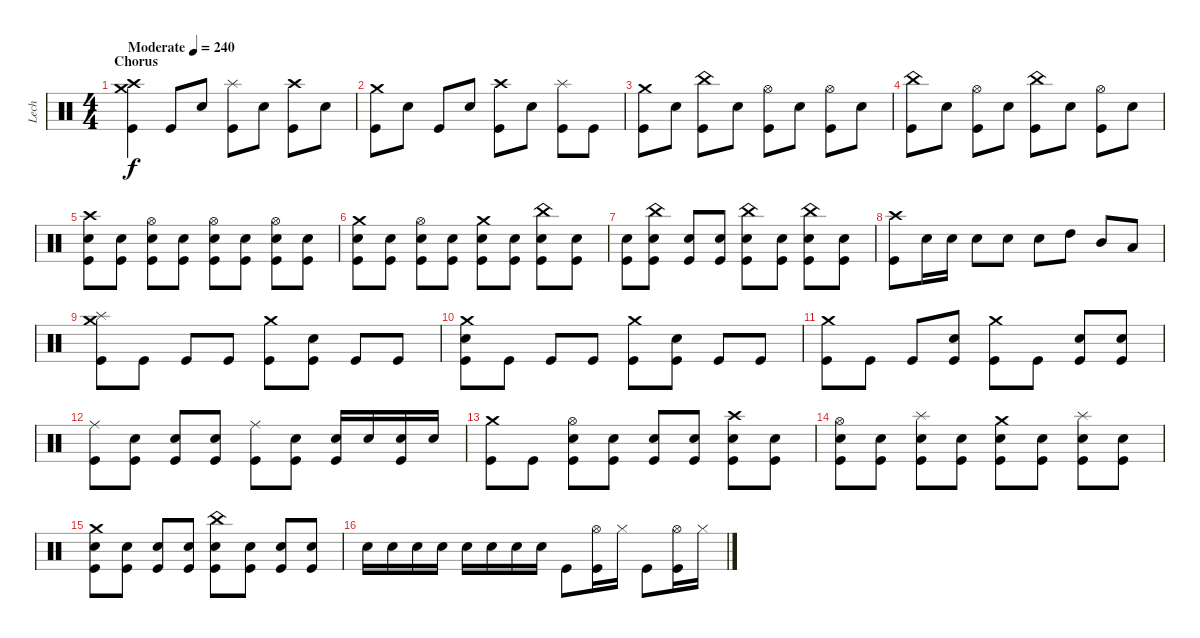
\track ("Lech" "Lech") {instrument percussion}
\staff {score}
\articulation defaults
\ts (4 4)
\section ("" "Chorus")
\tempo (240 "Moderate")
\clef neutral
\ks c
("Crash high (hit)" "Crash medium (hit)" "Kick (hit)").4{dy f} "Kick (hit)".8 "Snare (hit) 2".8 ("Splash (hit)" "Kick (hit)").8 "Snare (hit) 2".8 ("Crash high (hit)" "Kick (hit)").8 "Snare (hit) 2".8 |
("Crash medium (hit)" "Kick (hit)").8 "Snare (hit) 2".8 "Kick (hit)".8 "Snare (hit) 2".8 ("Crash high (hit)" "Kick (hit)").8 "Snare (hit) 2".8 ("Splash (hit)" "Kick (hit)").8 "Kick (hit)".8 |
("Crash medium (hit)" "Kick (hit)").8 "Snare (hit) 2".8 ("China (hit)" "Kick (hit)").8 "Snare (hit) 2".8 ("Hi-Hat (open)" "Kick (hit)").8 "Snare (hit) 2".8 ("Hi-Hat (open)" "Kick (hit)").8 "Snare (hit) 2".8 |
("China (hit)" "Kick (hit)").8 "Snare (hit) 2".8 ("Hi-Hat (open)" "Kick (hit)").8 "Snare (hit) 2".8 ("China (hit)" "Kick (hit)").8 "Snare (hit) 2".8 ("Hi-Hat (open)" "Kick (hit)").8 "Snare (hit) 2".8 |
("Crash high (hit)" "Snare (hit) 2" "Kick (hit)").8 ("Snare (hit) 2" "Kick (hit)").8 ("Hi-Hat (open)" "Snare (hit) 2" "Kick (hit)").8 ("Snare (hit) 2" "Kick (hit)").8 ("Hi-Hat (open)" "Snare (hit) 2" "Kick (hit)").8 ("Snare (hit) 2" "Kick (hit)").8 ("Hi-Hat (open)" "Snare (hit) 2" "Kick (hit)").8 ("Snare (hit) 2" "Kick (hit)").8 |
("Crash medium (hit)" "Snare (hit) 2" "Kick (hit)").8 ("Snare (hit) 2" "Kick (hit)").8 ("Hi-Hat (open)" "Snare (hit) 2" "Kick (hit)").8 ("Snare (hit) 2" "Kick (hit)").8 ("Crash medium (hit)" "Snare (hit) 2" "Kick (hit)").8 ("Snare (hit) 2" "Kick (hit)").8 ("China (hit)" "Snare (hit) 2" "Kick (hit)").8 ("Snare (hit) 2" "Kick (hit)").8 |
("Snare (hit) 2" "Kick (hit)").8 ("China (hit)" "Snare (hit) 2" "Kick (hit)").8 ("Snare (hit) 2" "Kick (hit)").8 ("Snare (hit) 2" "Kick (hit)").8 ("China (hit)" "Snare (hit) 2" "Kick (hit)").8 ("Snare (hit) 2" "Kick (hit)").8 ("China (hit)" "Snare (hit) 2" "Kick (hit)").8 ("Snare (hit) 2" "Kick (hit)").8 |
("Crash high (hit)" "Kick (hit)").8 "Snare (hit) 2".16 "Snare (hit) 2".16 "Snare (hit) 2".8 "Snare (hit) 2".8 "Snare (hit) 2".8 "High Tom (hit)".8 "Mid Tom (hit)".8 "Low Tom (hit)".8 |
("Crash medium (hit)" "Splash (hit)" "Kick (hit)").8 "Kick (hit)".8 "Kick (hit)".8 "Kick (hit)".8 ("Crash medium (hit)" "Kick (hit)").8 ("Snare (hit) 2" "Kick (hit)").8 "Kick (hit)".8 "Kick (hit)".8 |
("Crash medium (hit)" "Snare (hit) 2" "Kick (hit)").8 "Kick (hit)".8 "Kick (hit)".8 "Kick (hit)".8 ("Crash medium (hit)" "Kick (hit)").8 ("Snare (hit) 2" "Kick (hit)").8 "Kick (hit)".8 "Kick (hit)".8 |
("Crash medium (hit)" "Kick (hit)").8 "Kick (hit)".8 "Kick (hit)".8 ("Snare (hit) 2" "Kick (hit)").8 ("Crash medium (hit)" "Kick (hit)").8 "Kick (hit)".8 ("Snare (hit) 2" "Kick (hit)").8 ("Snare (hit) 2" "Kick (hit)").8 |
("Ride (middle)" "Kick (hit)").8 ("Snare (hit) 2" "Kick (hit)").8 ("Snare (hit) 2" "Kick (hit)").8 ("Snare (hit) 2" "Kick (hit)").8 ("Ride (middle)" "Kick (hit)").8 ("Snare (hit) 2" "Kick (hit)").8 ("Snare (hit) 2" "Kick (hit)").16 "Snare (hit) 2".16 ("Snare (hit) 2" "Kick (hit)").16 "Snare (hit) 2".16 |
("Crash medium (hit)" "Kick (hit)").8 "Kick (hit)".8 ("Hi-Hat (open)" "Snare (hit) 2" "Kick (hit)").8 ("Snare (hit) 2" "Kick (hit)").8 ("Snare (hit) 2" "Kick (hit)").8 ("Snare (hit) 2" "Kick (hit)").8 ("Crash high (hit)" "Snare (hit) 2" "Kick (hit)").8 ("Snare (hit) 2" "Kick (hit)").8 |
("Hi-Hat (open)" "Snare (hit) 2" "Kick (hit)").8 ("Snare (hit) 2" "Kick (hit)").8 ("Splash (hit)" "Snare (hit) 2" "Kick (hit)").8 ("Snare (hit) 2" "Kick (hit)").8 ("Crash medium (hit)" "Snare (hit) 2" "Kick (hit)").8 ("Snare (hit) 2" "Kick (hit)").8 ("Splash (hit)" "Snare (hit) 2" "Kick (hit)").8 ("Snare (hit) 2" "Kick (hit)").8 |
("Crash medium (hit)" "Snare (hit) 2" "Kick (hit)").8 ("Snare (hit) 2" "Kick (hit)").8 ("Snare (hit) 2" "Kick (hit)").8 ("Snare (hit) 2" "Kick (hit)").8 ("China (hit)" "Snare (hit) 2" "Kick (hit)").8 ("Snare (hit) 2" "Kick (hit)").8 ("Snare (hit) 2" "Kick (hit)").8 ("Snare (hit) 2" "Kick (hit)").8 |
"Snare (hit) 2".16 "Snare (hit) 2".16 "Snare (hit) 2".16 "Snare (hit) 2".16 "Snare (hit) 2".16 "Snare (hit) 2".16 "Snare (hit) 2".16 "Snare (hit) 2".16 "Kick (hit)".8 ("Hi-Hat (open)" "Kick (hit)").16 "Hi-Hat (closed)".16 "Kick (hit)".8 ("Hi-Hat (open)" "Kick (hit)").16 "Hi-Hat (closed)".16
